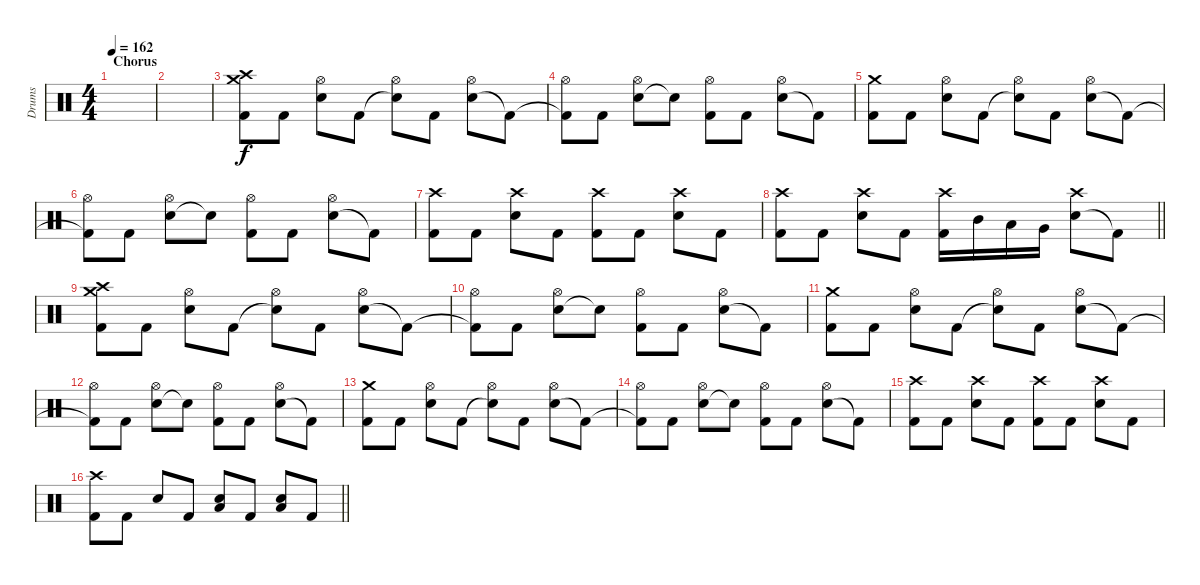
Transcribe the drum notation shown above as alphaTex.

\track ("Drums" "Drums") {instrument percussion}
\staff {score}
\articulation defaults
\ts (4 4)
\section ("" "Chorus")
\tempo 162
\clef neutral
\ks c
|
|
("Kick (hit) 2" "Crash high (hit)" "Crash medium (hit)").8 "Kick (hit) 2".8 ("Electric Snare (hit)" "Hi-Hat (open)").8 "Kick (hit) 2".8 ("Snare (hit)"{t} "Hi-Hat (open)").8 "Kick (hit) 2".8 ("Electric Snare (hit)" "Hi-Hat (open)").8 "Kick (hit) 2"{t}.8 |
("Kick (hit) 2"{t} "Hi-Hat (open)").8 "Kick (hit) 2".8 ("Electric Snare (hit)" "Hi-Hat (open)").8 "Snare (hit)"{t}.8 ("Kick (hit) 2" "Hi-Hat (open)").8 "Kick (hit) 2".8 ("Electric Snare (hit)" "Hi-Hat (open)").8 "Kick (hit) 2"{t}.8 |
("Kick (hit) 2" "Crash medium (hit)").8 "Kick (hit) 2".8 ("Electric Snare (hit)" "Hi-Hat (open)").8 "Kick (hit) 2".8 ("Snare (hit)"{t} "Hi-Hat (open)").8 "Kick (hit) 2".8 ("Electric Snare (hit)" "Hi-Hat (open)").8 "Kick (hit) 2"{t}.8 |
("Kick (hit) 2"{t} "Hi-Hat (open)").8 "Kick (hit) 2".8 ("Electric Snare (hit)" "Hi-Hat (open)").8 "Snare (hit)"{t}.8 ("Kick (hit) 2" "Hi-Hat (open)").8 "Kick (hit) 2".8 ("Electric Snare (hit)" "Hi-Hat (open)").8 "Kick (hit) 2"{t}.8 |
("Kick (hit) 2" "Crash high (hit)").8 "Kick (hit) 2".8 ("Electric Snare (hit)" "Crash high (hit)").8 "Kick (hit) 2".8 ("Kick (hit) 2" "Crash high (hit)").8 "Kick (hit) 2".8 ("Electric Snare (hit)" "Crash high (hit)").8 "Kick (hit) 2".8 |
\barLineRight lightlight
("Kick (hit) 2" "Crash high (hit)").8 "Kick (hit) 2".8 ("Electric Snare (hit)" "Crash high (hit)").8 "Kick (hit) 2".8 ("Kick (hit) 2" "Crash high (hit)").16 "Mid Tom (hit)".16 "Low Tom (hit)".16 "Very Low Tom (hit)".16 ("Electric Snare (hit)" "Crash high (hit)").8 "Kick (hit) 2"{t}.8 |
("Kick (hit) 2" "Crash medium (hit)" "Crash high (hit)").8 "Kick (hit) 2".8 ("Electric Snare (hit)" "Hi-Hat (open)").8 "Kick (hit) 2".8 ("Snare (hit)"{t} "Hi-Hat (open)").8 "Kick (hit) 2".8 ("Electric Snare (hit)" "Hi-Hat (open)").8 "Kick (hit) 2"{t}.8 |
("Kick (hit) 2"{t} "Hi-Hat (open)").8 "Kick (hit) 2".8 ("Electric Snare (hit)" "Hi-Hat (open)").8 "Snare (hit)"{t}.8 ("Kick (hit) 2" "Hi-Hat (open)").8 "Kick (hit) 2".8 ("Electric Snare (hit)" "Hi-Hat (open)").8 "Kick (hit) 2"{t}.8 |
("Kick (hit) 2" "Crash medium (hit)").8 "Kick (hit) 2".8 ("Electric Snare (hit)" "Hi-Hat (open)").8 "Kick (hit) 2".8 ("Snare (hit)"{t} "Hi-Hat (open)").8 "Kick (hit) 2".8 ("Electric Snare (hit)" "Hi-Hat (open)").8 "Kick (hit) 2"{t}.8 |
("Kick (hit) 2"{t} "Hi-Hat (open)").8 "Kick (hit) 2".8 ("Electric Snare (hit)" "Hi-Hat (open)").8 "Snare (hit)"{t}.8 ("Kick (hit) 2" "Hi-Hat (open)").8 "Kick (hit) 2".8 ("Electric Snare (hit)" "Hi-Hat (open)").8 "Kick (hit) 2"{t}.8 |
("Kick (hit) 2" "Crash medium (hit)").8 "Kick (hit) 2".8 ("Electric Snare (hit)" "Hi-Hat (open)").8 "Kick (hit) 2".8 ("Snare (hit)"{t} "Hi-Hat (open)").8 "Kick (hit) 2".8 ("Electric Snare (hit)" "Hi-Hat (open)").8 "Kick (hit) 2"{t}.8 |
("Kick (hit) 2"{t} "Hi-Hat (open)").8 "Kick (hit) 2".8 ("Electric Snare (hit)" "Hi-Hat (open)").8 "Snare (hit)"{t}.8 ("Kick (hit) 2" "Hi-Hat (open)").8 "Kick (hit) 2".8 ("Electric Snare (hit)" "Hi-Hat (open)").8 "Kick (hit) 2"{t}.8 |
("Kick (hit) 2" "Crash high (hit)").8 "Kick (hit) 2".8 ("Electric Snare (hit)" "Crash high (hit)").8 "Kick (hit) 2".8 ("Kick (hit) 2" "Crash high (hit)").8 "Kick (hit) 2".8 ("Electric Snare (hit)" "Crash high (hit)").8 "Kick (hit) 2".8 |
\barLineRight lightlight
("Kick (hit) 2" "Crash high (hit)").8 "Kick (hit) 2".8 "Electric Snare (hit)".8 "Kick (hit) 2".8 ("Electric Snare (hit)" "Low Floor Tom (hit)").8 "Kick (hit) 2".8 ("Electric Snare (hit)" "Low Floor Tom (hit)").8 "Kick (hit) 2".8
